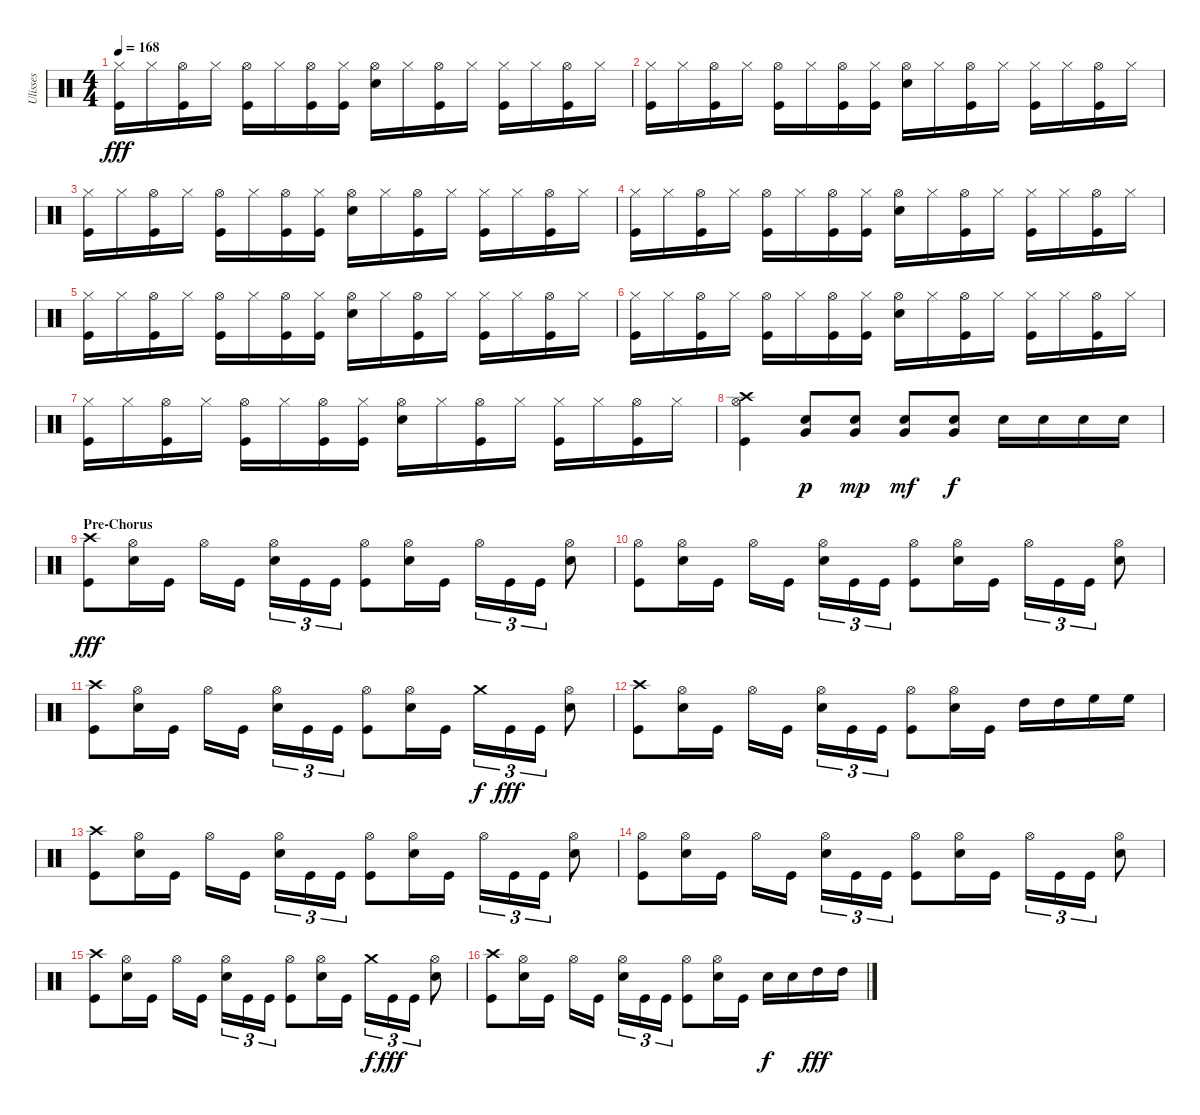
\track ("Ulisses" "Ulisses") {instrument percussion}
\staff {score}
\articulation defaults
\ts (4 4)
\tempo 168
\clef neutral
\ks c
("Hi-Hat (closed)" "Kick (hit)").16{dy fff} "Hi-Hat (closed)".16 ("Hi-Hat (open)" "Kick (hit)").16 "Hi-Hat (closed)".16 ("Hi-Hat (open)" "Kick (hit)").16 "Hi-Hat (closed)".16 ("Hi-Hat (open)" "Kick (hit)").16 ("Hi-Hat (closed)" "Kick (hit)").16 ("Hi-Hat (open)" "Snare (hit) 2").16 "Hi-Hat (closed)".16 ("Hi-Hat (open)" "Kick (hit)").16 "Hi-Hat (closed)".16 ("Hi-Hat (closed)" "Kick (hit)").16 "Hi-Hat (closed)".16 ("Hi-Hat (open)" "Kick (hit)").16 "Hi-Hat (closed)".16 |
("Hi-Hat (closed)" "Kick (hit)").16 "Hi-Hat (closed)".16 ("Hi-Hat (open)" "Kick (hit)").16 "Hi-Hat (closed)".16 ("Hi-Hat (open)" "Kick (hit)").16 "Hi-Hat (closed)".16 ("Hi-Hat (open)" "Kick (hit)").16 ("Hi-Hat (closed)" "Kick (hit)").16 ("Hi-Hat (open)" "Snare (hit) 2").16 "Hi-Hat (closed)".16 ("Hi-Hat (open)" "Kick (hit)").16 "Hi-Hat (closed)".16 ("Hi-Hat (closed)" "Kick (hit)").16 "Hi-Hat (closed)".16 ("Hi-Hat (open)" "Kick (hit)").16 "Hi-Hat (closed)".16 |
("Hi-Hat (closed)" "Kick (hit)").16 "Hi-Hat (closed)".16 ("Hi-Hat (open)" "Kick (hit)").16 "Hi-Hat (closed)".16 ("Hi-Hat (open)" "Kick (hit)").16 "Hi-Hat (closed)".16 ("Hi-Hat (open)" "Kick (hit)").16 ("Hi-Hat (closed)" "Kick (hit)").16 ("Hi-Hat (open)" "Snare (hit) 2").16 "Hi-Hat (closed)".16 ("Hi-Hat (open)" "Kick (hit)").16 "Hi-Hat (closed)".16 ("Hi-Hat (closed)" "Kick (hit)").16 "Hi-Hat (closed)".16 ("Hi-Hat (open)" "Kick (hit)").16 "Hi-Hat (closed)".16 |
("Hi-Hat (closed)" "Kick (hit)").16 "Hi-Hat (closed)".16 ("Hi-Hat (open)" "Kick (hit)").16 "Hi-Hat (closed)".16 ("Hi-Hat (open)" "Kick (hit)").16 "Hi-Hat (closed)".16 ("Hi-Hat (open)" "Kick (hit)").16 ("Hi-Hat (closed)" "Kick (hit)").16 ("Hi-Hat (open)" "Snare (hit) 2").16 "Hi-Hat (closed)".16 ("Hi-Hat (open)" "Kick (hit)").16 "Hi-Hat (closed)".16 ("Hi-Hat (closed)" "Kick (hit)").16 "Hi-Hat (closed)".16 ("Hi-Hat (open)" "Kick (hit)").16 "Hi-Hat (closed)".16 |
("Hi-Hat (closed)" "Kick (hit)").16 "Hi-Hat (closed)".16 ("Hi-Hat (open)" "Kick (hit)").16 "Hi-Hat (closed)".16 ("Hi-Hat (open)" "Kick (hit)").16 "Hi-Hat (closed)".16 ("Hi-Hat (open)" "Kick (hit)").16 ("Hi-Hat (closed)" "Kick (hit)").16 ("Hi-Hat (open)" "Snare (hit) 2").16 "Hi-Hat (closed)".16 ("Hi-Hat (open)" "Kick (hit)").16 "Hi-Hat (closed)".16 ("Hi-Hat (closed)" "Kick (hit)").16 "Hi-Hat (closed)".16 ("Hi-Hat (open)" "Kick (hit)").16 "Hi-Hat (closed)".16 |
("Hi-Hat (closed)" "Kick (hit)").16 "Hi-Hat (closed)".16 ("Hi-Hat (open)" "Kick (hit)").16 "Hi-Hat (closed)".16 ("Hi-Hat (open)" "Kick (hit)").16 "Hi-Hat (closed)".16 ("Hi-Hat (open)" "Kick (hit)").16 ("Hi-Hat (closed)" "Kick (hit)").16 ("Hi-Hat (open)" "Snare (hit) 2").16 "Hi-Hat (closed)".16 ("Hi-Hat (open)" "Kick (hit)").16 "Hi-Hat (closed)".16 ("Hi-Hat (closed)" "Kick (hit)").16 "Hi-Hat (closed)".16 ("Hi-Hat (open)" "Kick (hit)").16 "Hi-Hat (closed)".16 |
("Hi-Hat (closed)" "Kick (hit)").16 "Hi-Hat (closed)".16 ("Hi-Hat (open)" "Kick (hit)").16 "Hi-Hat (closed)".16 ("Hi-Hat (open)" "Kick (hit)").16 "Hi-Hat (closed)".16 ("Hi-Hat (open)" "Kick (hit)").16 ("Hi-Hat (closed)" "Kick (hit)").16 ("Hi-Hat (open)" "Snare (hit) 2").16 "Hi-Hat (closed)".16 ("Hi-Hat (open)" "Kick (hit)").16 "Hi-Hat (closed)".16 ("Hi-Hat (closed)" "Kick (hit)").16 "Hi-Hat (closed)".16 ("Hi-Hat (open)" "Kick (hit)").16 "Hi-Hat (closed)".16 |
("Hi-Hat (open)" "Crash high (hit)" "Kick (hit)").4 ("Snare (hit) 2" "Very Low Tom (hit)").8{dy p} ("Snare (hit) 2" "Very Low Tom (hit)").8{dy mp} ("Snare (hit) 2" "Very Low Tom (hit)").8{dy mf} ("Snare (hit) 2" "Very Low Tom (hit)").8{dy f} "Snare (hit) 2".16 "Snare (hit) 2".16 "Snare (hit) 2".16 "Snare (hit) 2".16 |
\section ("" "Pre-Chorus")
("Crash high (hit)" "Kick (hit)").8{dy fff} ("Hi-Hat (open)" "Snare (hit) 2").16 "Kick (hit)".16 "Hi-Hat (open)".16 "Kick (hit)".16 ("Hi-Hat (open)" "Snare (hit) 2").16{tu (3 2)} "Kick (hit)".16{tu (3 2)} "Kick (hit)".16{tu (3 2)} ("Hi-Hat (open)" "Kick (hit)").8 ("Hi-Hat (open)" "Snare (hit) 2").16 "Kick (hit)".16 "Hi-Hat (open)".16{tu (3 2)} "Kick (hit)".16{tu (3 2)} "Kick (hit)".16{tu (3 2)} ("Hi-Hat (open)" "Snare (hit) 2").8 |
("Hi-Hat (open)" "Kick (hit)").8 ("Hi-Hat (open)" "Snare (hit) 2").16 "Kick (hit)".16 "Hi-Hat (open)".16 "Kick (hit)".16 ("Hi-Hat (open)" "Snare (hit) 2").16{tu (3 2)} "Kick (hit)".16{tu (3 2)} "Kick (hit)".16{tu (3 2)} ("Hi-Hat (open)" "Kick (hit)").8 ("Hi-Hat (open)" "Snare (hit) 2").16 "Kick (hit)".16 "Hi-Hat (open)".16{tu (3 2)} "Kick (hit)".16{tu (3 2)} "Kick (hit)".16{tu (3 2)} ("Hi-Hat (open)" "Snare (hit) 2").8 |
("Crash high (hit)" "Kick (hit)").8 ("Hi-Hat (open)" "Snare (hit) 2").16 "Kick (hit)".16 "Hi-Hat (open)".16 "Kick (hit)".16 ("Hi-Hat (open)" "Snare (hit) 2").16{tu (3 2)} "Kick (hit)".16{tu (3 2)} "Kick (hit)".16{tu (3 2)} ("Hi-Hat (open)" "Kick (hit)").8 ("Hi-Hat (open)" "Snare (hit) 2").16 "Kick (hit)".16 "Crash medium (hit)".16{tu (3 2) dy f} "Kick (hit)".16{tu (3 2) dy fff} "Kick (hit)".16{tu (3 2)} ("Hi-Hat (open)" "Snare (hit) 2").8 |
("Crash high (hit)" "Kick (hit)").8 ("Hi-Hat (open)" "Snare (hit) 2").16 "Kick (hit)".16 "Hi-Hat (open)".16 "Kick (hit)".16 ("Hi-Hat (open)" "Snare (hit) 2").16{tu (3 2)} "Kick (hit)".16{tu (3 2)} "Kick (hit)".16{tu (3 2)} ("Hi-Hat (open)" "Kick (hit)").8 ("Hi-Hat (open)" "Snare (hit) 2").16 "Kick (hit)".16 "High Tom (hit)".16 "High Tom (hit)".16 "High Floor Tom (hit)".16 "High Floor Tom (hit)".16 |
("Crash high (hit)" "Kick (hit)").8 ("Hi-Hat (open)" "Snare (hit) 2").16 "Kick (hit)".16 "Hi-Hat (open)".16 "Kick (hit)".16 ("Hi-Hat (open)" "Snare (hit) 2").16{tu (3 2)} "Kick (hit)".16{tu (3 2)} "Kick (hit)".16{tu (3 2)} ("Hi-Hat (open)" "Kick (hit)").8 ("Hi-Hat (open)" "Snare (hit) 2").16 "Kick (hit)".16 "Hi-Hat (open)".16{tu (3 2)} "Kick (hit)".16{tu (3 2)} "Kick (hit)".16{tu (3 2)} ("Hi-Hat (open)" "Snare (hit) 2").8 |
("Hi-Hat (open)" "Kick (hit)").8 ("Hi-Hat (open)" "Snare (hit) 2").16 "Kick (hit)".16 "Hi-Hat (open)".16 "Kick (hit)".16 ("Hi-Hat (open)" "Snare (hit) 2").16{tu (3 2)} "Kick (hit)".16{tu (3 2)} "Kick (hit)".16{tu (3 2)} ("Hi-Hat (open)" "Kick (hit)").8 ("Hi-Hat (open)" "Snare (hit) 2").16 "Kick (hit)".16 "Hi-Hat (open)".16{tu (3 2)} "Kick (hit)".16{tu (3 2)} "Kick (hit)".16{tu (3 2)} ("Hi-Hat (open)" "Snare (hit) 2").8 |
("Crash high (hit)" "Kick (hit)").8 ("Hi-Hat (open)" "Snare (hit) 2").16 "Kick (hit)".16 "Hi-Hat (open)".16 "Kick (hit)".16 ("Hi-Hat (open)" "Snare (hit) 2").16{tu (3 2)} "Kick (hit)".16{tu (3 2)} "Kick (hit)".16{tu (3 2)} ("Hi-Hat (open)" "Kick (hit)").8 ("Hi-Hat (open)" "Snare (hit) 2").16 "Kick (hit)".16 "Crash medium (hit)".16{tu (3 2) dy f} "Kick (hit)".16{tu (3 2) dy fff} "Kick (hit)".16{tu (3 2)} ("Hi-Hat (open)" "Snare (hit) 2").8 |
("Crash high (hit)" "Kick (hit)").8 ("Hi-Hat (open)" "Snare (hit) 2").16 "Kick (hit)".16 "Hi-Hat (open)".16 "Kick (hit)".16 ("Hi-Hat (open)" "Snare (hit) 2").16{tu (3 2)} "Kick (hit)".16{tu (3 2)} "Kick (hit)".16{tu (3 2)} ("Hi-Hat (open)" "Kick (hit)").8 ("Hi-Hat (open)" "Snare (hit) 2").16 "Kick (hit)".16 "Snare (hit) 2".16{dy f} "Snare (hit) 2".16 "High Tom (hit)".16{dy fff} "High Tom (hit)".16
